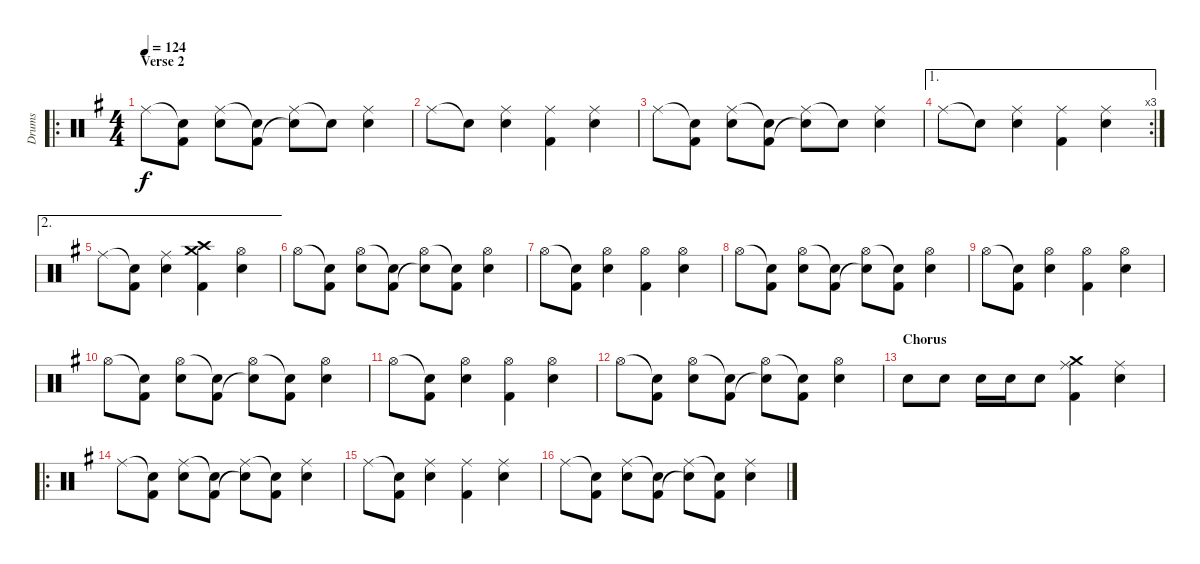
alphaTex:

\track ("Drums" "Drums") {instrument percussion}
\staff {score}
\articulation defaults
\ro
\ts (4 4)
\section ("" "Verse 2")
\tempo 124
\clef neutral
\ks g "Ride (middle)".8{dy f}
("Snare (hit)"{t} "Kick (hit) 2").8 ("Ride (middle)" "Snare (hit) 2").8 ("Snare (hit)"{t} "Kick (hit) 2").8 ("Ride (middle)" "Snare (hit)"{t}).8 "Snare (hit)"{t}.8 ("Ride (middle)" "Snare (hit) 2").4 |
"Ride (middle)".8 "Snare (hit)"{t}.8 ("Ride (middle)" "Snare (hit) 2").4 ("Ride (middle)" "Kick (hit) 2").4 ("Ride (middle)" "Snare (hit) 2").4 |
"Ride (middle)".8 ("Snare (hit)"{t} "Kick (hit) 2").8 ("Ride (middle)" "Snare (hit) 2").8 ("Snare (hit)"{t} "Kick (hit) 2").8 ("Ride (middle)" "Snare (hit)"{t}).8 "Snare (hit)"{t}.8 ("Ride (middle)" "Snare (hit) 2").4 |
\ae 1
\rc 3 "Ride (middle)".8 "Snare (hit)"{t}.8
("Ride (middle)" "Snare (hit) 2").4 ("Ride (middle)" "Kick (hit) 2").4 ("Ride (middle)" "Snare (hit) 2").4 |
\ae 2 "Ride (middle)".8
("Snare (hit)"{t} "Kick (hit) 2").8 ("Ride (middle)" "Snare (hit) 2").4 ("Crash medium (hit)" "Crash high (hit)" "Kick (hit) 2").4 ("Hi-Hat (open)" "Snare (hit) 2").4 |
"Hi-Hat (open)".8 ("Snare (hit)"{t} "Kick (hit) 2").8 ("Hi-Hat (open)" "Snare (hit) 2").8 ("Snare (hit)"{t} "Kick (hit) 2").8 ("Hi-Hat (open)" "Snare (hit)"{t}).8 ("Snare (hit)"{t} "Kick (hit) 2").8 ("Hi-Hat (open)" "Snare (hit) 2").4 |
"Hi-Hat (open)".8 ("Snare (hit)"{t} "Kick (hit) 2").8 ("Hi-Hat (open)" "Snare (hit) 2").4 ("Hi-Hat (open)" "Kick (hit) 2").4 ("Hi-Hat (open)" "Snare (hit) 2").4 |
"Hi-Hat (open)".8 ("Snare (hit)"{t} "Kick (hit) 2").8 ("Hi-Hat (open)" "Snare (hit) 2").8 ("Snare (hit)"{t} "Kick (hit) 2").8 ("Hi-Hat (open)" "Snare (hit)"{t}).8 ("Snare (hit)"{t} "Kick (hit) 2").8 ("Hi-Hat (open)" "Snare (hit) 2").4 |
"Hi-Hat (open)".8 ("Snare (hit)"{t} "Kick (hit) 2").8 ("Hi-Hat (open)" "Snare (hit) 2").4 ("Hi-Hat (open)" "Kick (hit) 2").4 ("Hi-Hat (open)" "Snare (hit) 2").4 |
"Hi-Hat (open)".8 ("Snare (hit)"{t} "Kick (hit) 2").8 ("Hi-Hat (open)" "Snare (hit) 2").8 ("Snare (hit)"{t} "Kick (hit) 2").8 ("Hi-Hat (open)" "Snare (hit)"{t}).8 ("Snare (hit)"{t} "Kick (hit) 2").8 ("Hi-Hat (open)" "Snare (hit) 2").4 |
"Hi-Hat (open)".8 ("Snare (hit)"{t} "Kick (hit) 2").8 ("Hi-Hat (open)" "Snare (hit) 2").4 ("Hi-Hat (open)" "Kick (hit) 2").4 ("Hi-Hat (open)" "Snare (hit) 2").4 |
"Hi-Hat (open)".8 ("Snare (hit)"{t} "Kick (hit) 2").8 ("Hi-Hat (open)" "Snare (hit) 2").8 ("Snare (hit)"{t} "Kick (hit) 2").8 ("Hi-Hat (open)" "Snare (hit)"{t}).8 ("Snare (hit)"{t} "Kick (hit) 2").8 ("Hi-Hat (open)" "Snare (hit) 2").4 |
\section ("" "Chorus")
"Snare (hit) 2".8 "Snare (hit) 2".8 "Snare (hit) 2".16 "Snare (hit) 2".16 "Snare (hit) 2".8 ("Crash medium (hit)" "Ride (middle)" "Kick (hit) 2").4 ("Ride (middle)" "Snare (hit) 2").4 |
\ro "Ride (middle)".8
("Snare (hit)"{t} "Kick (hit) 2").8 ("Ride (middle)" "Snare (hit) 2").8 ("Snare (hit)"{t} "Kick (hit) 2").8 ("Ride (middle)" "Snare (hit)"{t}).8 ("Snare (hit)"{t} "Kick (hit) 2").8 ("Ride (middle)" "Snare (hit) 2").4 |
"Ride (middle)".8 ("Snare (hit)"{t} "Kick (hit) 2").8 ("Ride (middle)" "Snare (hit) 2").4 ("Ride (middle)" "Kick (hit) 2").4 ("Ride (middle)" "Snare (hit) 2").4 |
"Ride (middle)".8 ("Snare (hit)"{t} "Kick (hit) 2").8 ("Ride (middle)" "Snare (hit) 2").8 ("Snare (hit)"{t} "Kick (hit) 2").8 ("Ride (middle)" "Snare (hit)"{t}).8 ("Snare (hit)"{t} "Kick (hit) 2").8 ("Ride (middle)" "Snare (hit) 2").4
